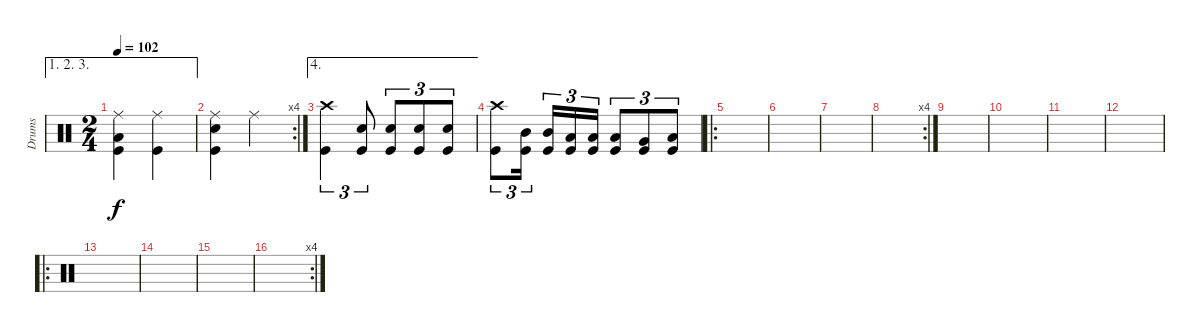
\track ("Drums" "Drums") {instrument percussion}
\staff {score}
\articulation defaults
\ae (1 2 3)
\ts (2 4)
\tempo 102
\clef neutral
\ks c
("Ride (middle)" "Kick (hit)" "Low Tom (hit)").4{dy f} ("Ride (middle)" "Kick (hit)").4 |
\rc 4
("Ride (middle)" "Kick (hit)" "Snare (hit) 2").4 "Ride (middle)".4 |
\ae 4
("Crash high (hit)" "Kick (hit)").4{tu (3 2)} ("Kick (hit)" "Electric Snare (hit)").8{tu (3 2)} ("Kick (hit)" "Electric Snare (hit)").8{tu (3 2)} ("Kick (hit)" "Electric Snare (hit)").8{tu (3 2)} ("Kick (hit)" "Electric Snare (hit)").8{tu (3 2)} |
("Crash high (hit)" "Kick (hit)").8{tu (3 2)} ("Kick (hit)" "Mid Tom (hit)").16{tu (3 2) beam splitsecondary} ("Kick (hit)" "Mid Tom (hit)").16{tu (3 2)} ("Kick (hit)" "Low Tom (hit)").16{tu (3 2)} ("Kick (hit)" "Low Tom (hit)").16{tu (3 2)} ("Kick (hit)" "Low Tom (hit)").8{tu (3 2)} ("Kick (hit)" "Very Low Tom (hit)").8{tu (3 2)} ("Kick (hit)" "Low Floor Tom (hit)").8{tu (3 2)} |
\ro
|
|
|
\rc 4
|
|
|
|
|
\ro
|
|
|
\rc 4
